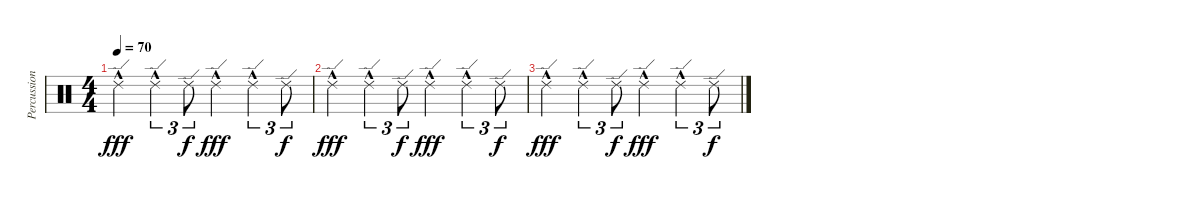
\track ("Percussion" "Percussion") {instrument percussion}
\staff {score}
\articulation defaults
\ts (4 4)
\tempo 70
\clef neutral
\ks c "Ride (edge) 2"{hac}.4{dy fff} "Ride (edge) 2"{hac}.4{tu (3 2)} "Ride (edge) 2".8{tu (3 2) dy f} "Ride (edge) 2"{hac}.4{dy fff} "Ride (edge) 2"{hac}.4{tu (3 2)} "Ride (edge) 2".8{tu (3 2) dy f}
|
"Ride (edge) 2"{hac}.4{dy fff} "Ride (edge) 2"{hac}.4{tu (3 2)} "Ride (edge) 2".8{tu (3 2) dy f} "Ride (edge) 2"{hac}.4{dy fff} "Ride (edge) 2"{hac}.4{tu (3 2)} "Ride (edge) 2".8{tu (3 2) dy f} |
"Ride (edge) 2"{hac}.4{dy fff} "Ride (edge) 2"{hac}.4{tu (3 2)} "Ride (edge) 2".8{tu (3 2) dy f} "Ride (edge) 2"{hac}.4{dy fff} "Ride (edge) 2"{hac}.4{tu (3 2)} "Ride (edge) 2".8{tu (3 2) dy f}
